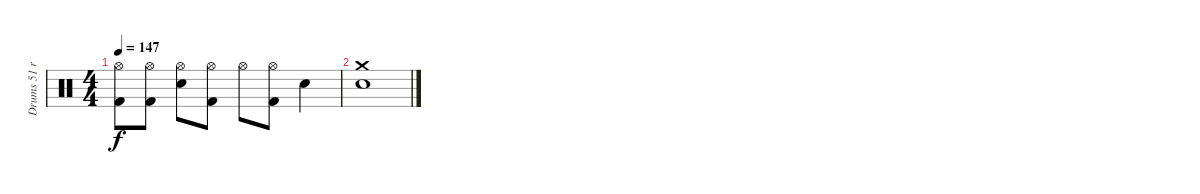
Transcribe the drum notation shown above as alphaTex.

\track ("Drums 51 ride" "Drums 51 r") {mute instrument percussion}
\staff {score}
\articulation defaults
\ts (4 4)
\tempo 147
\clef neutral
\ks c
("Hi-Hat (open)" "Kick (hit) 2").8{dy f} ("Hi-Hat (open)" "Kick (hit) 2").8 ("Hi-Hat (open)" "Snare (hit) 2").8 ("Hi-Hat (open)" "Kick (hit) 2").8 "Hi-Hat (open)".8 ("Hi-Hat (open)" "Kick (hit) 2").8 "Snare (hit) 2".4 |
("Crash medium (hit)" "Snare (hit) 2").1
